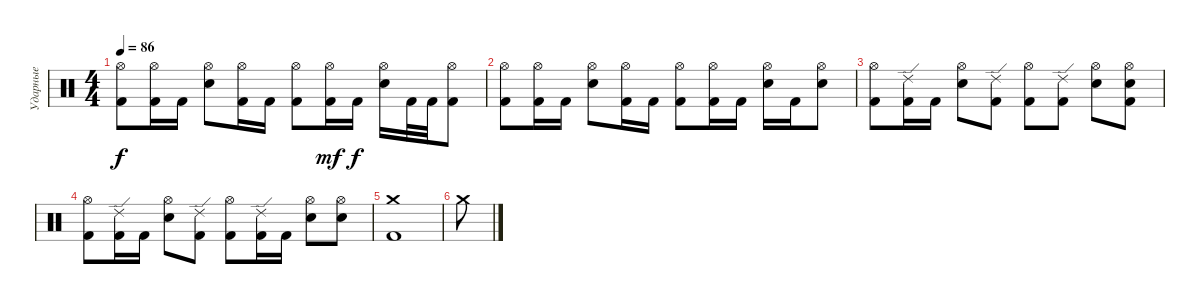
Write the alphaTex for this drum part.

\track ("Ударные" "Ударные") {instrument percussion}
\staff {score}
\articulation defaults
\ts (4 4)
\tempo 86
\clef neutral
\ks c
("Hi-Hat (open)" "Kick (hit) 2").8{dy f} ("Hi-Hat (open)" "Kick (hit) 2").16 "Kick (hit) 2".16 ("Hi-Hat (open)" "Electric Snare (hit)").8 ("Hi-Hat (open)" "Kick (hit) 2").16 "Kick (hit) 2".16 ("Hi-Hat (open)" "Kick (hit) 2").8 ("Hi-Hat (open)" "Kick (hit) 2").16{dy mf} "Kick (hit) 2".16{dy f} ("Hi-Hat (open)" "Electric Snare (hit)").16 "Kick (hit) 2".32 "Kick (hit) 2".32 ("Hi-Hat (open)" "Kick (hit) 2").8 |
("Hi-Hat (open)" "Kick (hit) 2").8 ("Hi-Hat (open)" "Kick (hit) 2").16 "Kick (hit) 2".16 ("Hi-Hat (open)" "Electric Snare (hit)").8 ("Hi-Hat (open)" "Kick (hit) 2").16 "Kick (hit) 2".16 ("Hi-Hat (open)" "Kick (hit) 2").8 ("Hi-Hat (open)" "Kick (hit) 2").16 "Kick (hit) 2".16 ("Hi-Hat (open)" "Electric Snare (hit)").16 "Kick (hit) 2".16 ("Hi-Hat (open)" "Electric Snare (hit)").8 |
("Hi-Hat (open)" "Kick (hit) 2").8 ("Ride (edge) 2" "Kick (hit) 2").16 "Kick (hit) 2".16 ("Hi-Hat (open)" "Electric Snare (hit)").8 ("Ride (edge) 2" "Kick (hit) 2").8 ("Hi-Hat (open)" "Kick (hit) 2").8 ("Ride (edge) 2" "Kick (hit) 2").8 ("Hi-Hat (open)" "Electric Snare (hit)").8 ("Hi-Hat (open)" "Electric Snare (hit)" "Kick (hit) 2").8 |
("Hi-Hat (open)" "Kick (hit) 2").8 ("Ride (edge) 2" "Kick (hit) 2").16 "Kick (hit) 2".16 ("Hi-Hat (open)" "Electric Snare (hit)").8 ("Ride (edge) 2" "Kick (hit) 2").8 ("Hi-Hat (open)" "Kick (hit) 2").8 ("Ride (edge) 2" "Kick (hit) 2").16 "Kick (hit) 2".16 ("Hi-Hat (open)" "Electric Snare (hit)").8 ("Hi-Hat (open)" "Electric Snare (hit)").8 |
("Crash medium (hit)" "Kick (hit) 2").1 |
"Crash medium (hit)".8
